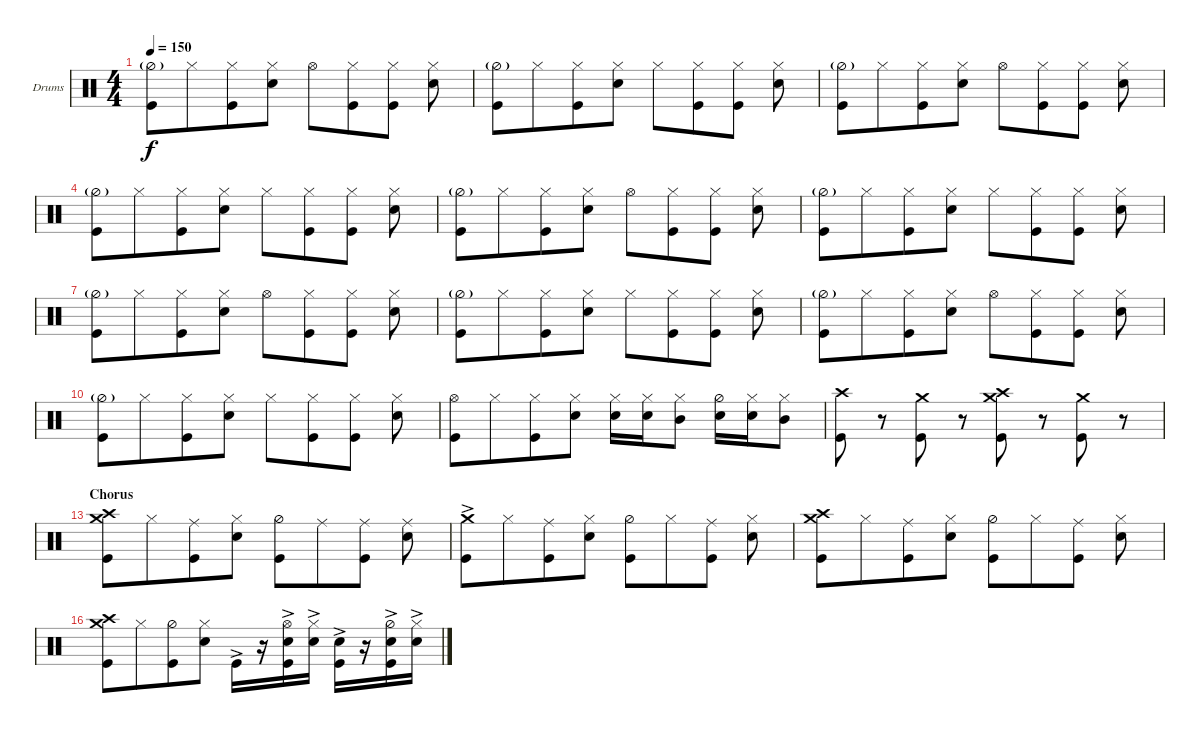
\defaultSystemsLayout 4
\bracketExtendMode nobrackets
\firstSystemTrackNameOrientation horizontal
\otherSystemsTrackNameOrientation horizontal
\defaultBarNumberDisplay FirstOfSystem
\track ("Drum" "Drums") {instrument percussion}
\staff {score}
\articulation defaults
\ts (4 4)
\scale
0.305556
\tempo 150
\accidentals auto
\clef neutral
\ottava regular
\simile none
\scale
0.25
\ks c
("Hi-Hat (half)"{g} "Kick (hit)").8{dy f} "Hi-Hat (closed)".8{beam merge} ("Kick (hit)" "Hi-Hat (closed)").8 ("Snare (hit) 2" "Hi-Hat (closed)").8 "Hi-Hat (open)".8 ("Hi-Hat (closed)" "Kick (hit)").8{beam merge} ("Kick (hit)" "Hi-Hat (closed)").8{beam split} ("Snare (hit) 2" "Hi-Hat (closed)").8 |
\scale
0.254158
\scale
0.25 ("Hi-Hat (half)"{g} "Kick (hit)").8 "Hi-Hat (closed)".8{beam merge} ("Kick (hit)" "Hi-Hat (closed)").8 ("Snare (hit) 2" "Hi-Hat (closed)").8 "Hi-Hat (closed)".8 ("Hi-Hat (closed)" "Kick (hit)").8{beam merge} ("Kick (hit)" "Hi-Hat (closed)").8{beam split} ("Snare (hit) 2" "Hi-Hat (closed)").8 |
\scale
0.246104
\scale
0.25 ("Hi-Hat (half)"{g} "Kick (hit)").8 "Hi-Hat (closed)".8{beam merge} ("Kick (hit)" "Hi-Hat (closed)").8 ("Snare (hit) 2" "Hi-Hat (closed)").8 "Hi-Hat (open)".8 ("Kick (hit)" "Hi-Hat (closed)").8{beam merge} ("Kick (hit)" "Hi-Hat (closed)").8{beam split} ("Snare (hit) 2" "Hi-Hat (closed)").8 |
\scale
0.194444
\scale
0.25 ("Kick (hit)" "Hi-Hat (half)"{g}).8 "Hi-Hat (closed)".8{beam merge} ("Kick (hit)" "Hi-Hat (closed)").8 ("Snare (hit) 2" "Hi-Hat (closed)").8 "Hi-Hat (closed)".8 ("Kick (hit)" "Hi-Hat (closed)").8{beam merge} ("Kick (hit)" "Hi-Hat (closed)").8{beam split} ("Snare (hit) 2" "Hi-Hat (closed)").8 |
\scale
0.25 ("Hi-Hat (half)"{g} "Kick (hit)").8 "Hi-Hat (closed)".8{beam merge} ("Kick (hit)" "Hi-Hat (closed)").8 ("Snare (hit) 2" "Hi-Hat (closed)").8 "Hi-Hat (open)".8 ("Hi-Hat (closed)" "Kick (hit)").8{beam merge} ("Kick (hit)" "Hi-Hat (closed)").8{beam split} ("Snare (hit) 2" "Hi-Hat (closed)").8 |
\scale
0.25 ("Hi-Hat (half)"{g} "Kick (hit)").8 "Hi-Hat (closed)".8{beam merge} ("Kick (hit)" "Hi-Hat (closed)").8 ("Snare (hit) 2" "Hi-Hat (closed)").8 "Hi-Hat (closed)".8 ("Hi-Hat (closed)" "Kick (hit)").8{beam merge} ("Kick (hit)" "Hi-Hat (closed)").8{beam split} ("Snare (hit) 2" "Hi-Hat (closed)").8 |
\scale
0.25 ("Hi-Hat (half)"{g} "Kick (hit)").8 "Hi-Hat (closed)".8{beam merge} ("Kick (hit)" "Hi-Hat (closed)").8 ("Snare (hit) 2" "Hi-Hat (closed)").8 "Hi-Hat (open)".8 ("Kick (hit)" "Hi-Hat (closed)").8{beam merge} ("Kick (hit)" "Hi-Hat (closed)").8{beam split} ("Snare (hit) 2" "Hi-Hat (closed)").8 |
\scale
0.25 ("Kick (hit)" "Hi-Hat (half)"{g}).8 "Hi-Hat (closed)".8{beam merge} ("Kick (hit)" "Hi-Hat (closed)").8 ("Snare (hit) 2" "Hi-Hat (closed)").8 "Hi-Hat (closed)".8 ("Kick (hit)" "Hi-Hat (closed)").8{beam merge} ("Kick (hit)" "Hi-Hat (closed)").8{beam split} ("Snare (hit) 2" "Hi-Hat (closed)").8 |
\scale
0.213068 ("Hi-Hat (half)"{g} "Kick (hit)").8 "Hi-Hat (closed)".8{beam merge} ("Kick (hit)" "Hi-Hat (closed)").8 ("Snare (hit) 2" "Hi-Hat (closed)").8 "Hi-Hat (open)".8 ("Hi-Hat (closed)" "Kick (hit)").8{beam merge} ("Kick (hit)" "Hi-Hat (closed)").8{beam split} ("Snare (hit) 2" "Hi-Hat (closed)").8 |
\scale
0.213068 ("Hi-Hat (half)"{g} "Kick (hit)").8 "Hi-Hat (closed)".8{beam merge} ("Kick (hit)" "Hi-Hat (closed)").8 ("Snare (hit) 2" "Hi-Hat (closed)").8 "Hi-Hat (closed)".8 ("Hi-Hat (closed)" "Kick (hit)").8{beam merge} ("Kick (hit)" "Hi-Hat (closed)").8{beam split} ("Snare (hit) 2" "Hi-Hat (closed)").8 |
\scale
0.346591 ("Kick (hit)" "Hi-Hat (open)").8 "Hi-Hat (closed)".8{beam merge} ("Kick (hit)" "Hi-Hat (closed)").8 ("Snare (hit) 2" "Hi-Hat (closed)").8 ("Snare (hit) 2" "Hi-Hat (closed)").16 ("Hi-Hat (closed)" "Snare (hit) 2").16 ("Hi-Hat (closed)" "Mid Tom (hit)").8 ("Snare (hit) 2" "Hi-Hat (half)").16 ("Hi-Hat (closed)" "Snare (hit) 2").16 ("Hi-Hat (closed)" "Mid Tom (hit)").8 |
\scale
0.227273 ("Crash high (hit)" "Kick (hit)").8 r.8 ("Kick (hit)" "Crash medium (hit)").8 r.8 ("Kick (hit)" "Crash medium (hit)" "Crash high (hit)").8 r.8 ("Kick (hit)" "Crash medium (hit)").8 r.8 |
\section ("" "Chorus")
\scale
0.232919 ("Kick (hit)" "Crash medium (hit)" "Crash high (hit)").8 "Hi-Hat (closed)".8{beam merge} ("Kick (hit)" "Ride (middle)").8 ("Snare (hit) 2" "Hi-Hat (closed)").8 ("Hi-Hat (half)" "Kick (hit)").8 "Ride (middle)".8{beam merge} ("Kick (hit)" "Ride (middle)").8{beam split} ("Snare (hit) 2" "Ride (middle)").8 |
\scale
0.232919 ("Kick (hit)" "Crash medium (hit)"{ac}).8 "Hi-Hat (closed)".8{beam merge} ("Kick (hit)" "Ride (middle)").8 ("Snare (hit) 2" "Hi-Hat (closed)").8 ("Hi-Hat (half)" "Kick (hit)").8 "Hi-Hat (closed)".8{beam merge} ("Kick (hit)" "Ride (middle)").8{beam split} ("Snare (hit) 2" "Hi-Hat (closed)").8 |
\scale
0.273528 ("Kick (hit)" "Crash high (hit)" "Crash medium (hit)").8 "Hi-Hat (closed)".8{beam merge} ("Kick (hit)" "Ride (middle)").8 ("Snare (hit) 2" "Hi-Hat (closed)").8 ("Hi-Hat (half)" "Kick (hit)").8 "Hi-Hat (closed)".8{beam merge} ("Kick (hit)" "Ride (middle)").8{beam split} ("Snare (hit) 2" "Hi-Hat (closed)").8 |
\scale
0.26255 ("Kick (hit)" "Crash high (hit)" "Crash medium (hit)").8 "Hi-Hat (closed)".8{beam merge} ("Kick (hit)" "Hi-Hat (half)").8 ("Snare (hit) 2" "Hi-Hat (closed)").8 "Kick (hit)"{ac}.16 r.16 ("Snare (hit) 2"{ac} "Kick (hit)"{ac} "Hi-Hat (open)").16 ("Snare (hit) 2"{ac} "Hi-Hat (closed)").16 ("Snare (hit) 2" "Kick (hit)"{ac}).16 r.16 ("Kick (hit)"{ac} "Snare (hit) 2"{ac} "Hi-Hat (half)").16 ("Snare (hit) 2"{ac} "Hi-Hat (closed)").16
